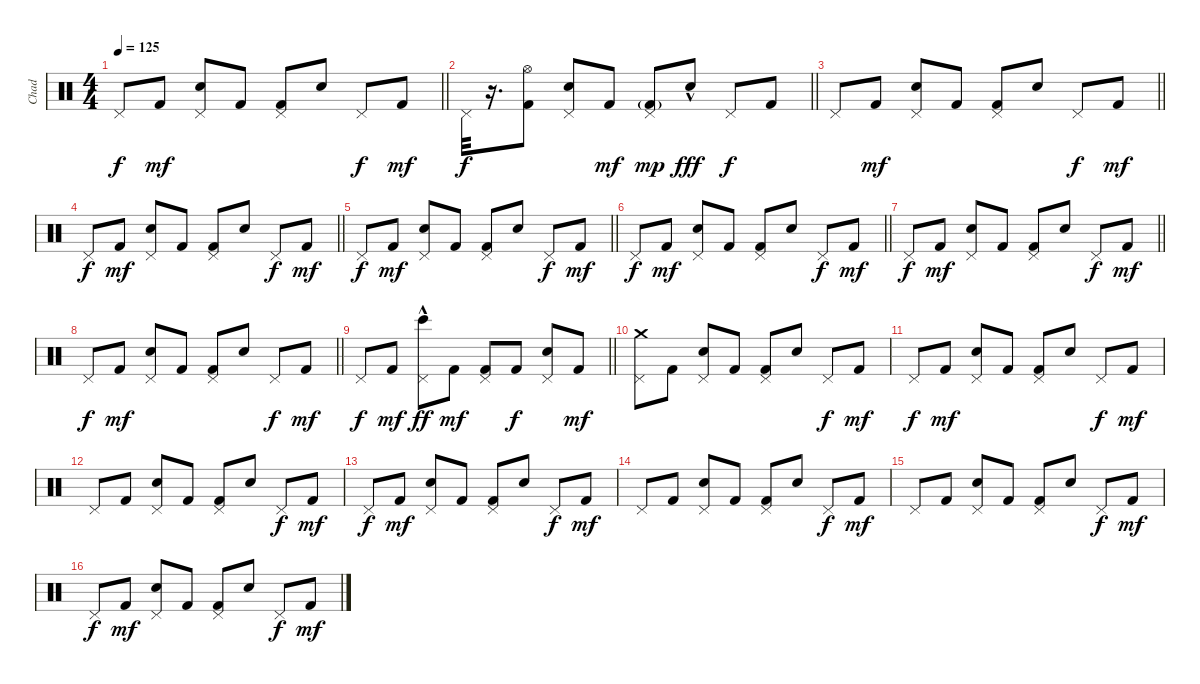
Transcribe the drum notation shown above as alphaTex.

\track ("Chad" "Chad") {instrument percussion}
\staff {score}
\articulation defaults
\ts (4 4)
\tempo 125
\clef neutral
\barLineRight lightlight
\ks c "Pedal Hi-Hat (hit)".8{dy f} "Kick (hit) 2".8{dy mf}
("Electric Snare (hit)" "Pedal Hi-Hat (hit)").8 "Kick (hit) 2".8 ("Kick (hit) 2" "Pedal Hi-Hat (hit)").8 "Electric Snare (hit)".8 "Pedal Hi-Hat (hit)".8{dy f} "Kick (hit) 2".8{dy mf} |
\barLineRight lightlight "Pedal Hi-Hat (hit)".32{dy f}
r.16{d} ("Kick (hit) 2" "Hi-Hat (open)").8 ("Electric Snare (hit)" "Pedal Hi-Hat (hit)").8 "Kick (hit) 2".8{dy mf} ("Kick (hit) 2"{g} "Pedal Hi-Hat (hit)").8{dy mp} "Electric Snare (hit)"{hac}.8{dy fff} "Pedal Hi-Hat (hit)".8{dy f} "Kick (hit) 2".8 |
\barLineRight lightlight "Pedal Hi-Hat (hit)".8 "Kick (hit) 2".8{dy mf}
("Electric Snare (hit)" "Pedal Hi-Hat (hit)").8 "Kick (hit) 2".8 ("Kick (hit) 2" "Pedal Hi-Hat (hit)").8 "Electric Snare (hit)".8 "Pedal Hi-Hat (hit)".8{dy f} "Kick (hit) 2".8{dy mf} |
\barLineRight lightlight "Pedal Hi-Hat (hit)".8{dy f} "Kick (hit) 2".8{dy mf}
("Electric Snare (hit)" "Pedal Hi-Hat (hit)").8 "Kick (hit) 2".8 ("Kick (hit) 2" "Pedal Hi-Hat (hit)").8 "Electric Snare (hit)".8 "Pedal Hi-Hat (hit)".8{dy f} "Kick (hit) 2".8{dy mf} |
\barLineRight lightlight "Pedal Hi-Hat (hit)".8{dy f} "Kick (hit) 2".8{dy mf}
("Electric Snare (hit)" "Pedal Hi-Hat (hit)").8 "Kick (hit) 2".8 ("Kick (hit) 2" "Pedal Hi-Hat (hit)").8 "Electric Snare (hit)".8 "Pedal Hi-Hat (hit)".8{dy f} "Kick (hit) 2".8{dy mf} |
\barLineRight lightlight "Pedal Hi-Hat (hit)".8{dy f} "Kick (hit) 2".8{dy mf}
("Electric Snare (hit)" "Pedal Hi-Hat (hit)").8 "Kick (hit) 2".8 ("Kick (hit) 2" "Pedal Hi-Hat (hit)").8 "Electric Snare (hit)".8 "Pedal Hi-Hat (hit)".8{dy f} "Kick (hit) 2".8{dy mf} |
\barLineRight lightlight "Pedal Hi-Hat (hit)".8{dy f} "Kick (hit) 2".8{dy mf}
("Electric Snare (hit)" "Pedal Hi-Hat (hit)").8 "Kick (hit) 2".8 ("Kick (hit) 2" "Pedal Hi-Hat (hit)").8 "Electric Snare (hit)".8 "Pedal Hi-Hat (hit)".8{dy f} "Kick (hit) 2".8{dy mf} |
\barLineRight lightlight "Pedal Hi-Hat (hit)".8{dy f} "Kick (hit) 2".8{dy mf}
("Electric Snare (hit)" "Pedal Hi-Hat (hit)").8 "Kick (hit) 2".8 ("Kick (hit) 2" "Pedal Hi-Hat (hit)").8 "Electric Snare (hit)".8 "Pedal Hi-Hat (hit)".8{dy f} "Kick (hit) 2".8{dy mf} |
\barLineRight lightlight "Pedal Hi-Hat (hit)".8{dy f} "Kick (hit) 2".8{dy mf}
("Bongo High (hit)"{hac} "Pedal Hi-Hat (hit)").8{dy ff} "Kick (hit) 2".8{dy mf} ("Kick (hit) 2" "Pedal Hi-Hat (hit)").8 "Kick (hit) 2".8{dy f} ("Electric Snare (hit)" "Pedal Hi-Hat (hit)").8 "Kick (hit) 2".8{dy mf} |
("Crash medium (hit)" "Pedal Hi-Hat (hit)").8 "Kick (hit) 2".8 ("Electric Snare (hit)" "Pedal Hi-Hat (hit)").8 "Kick (hit) 2".8 ("Kick (hit) 2" "Pedal Hi-Hat (hit)").8 "Electric Snare (hit)".8 "Pedal Hi-Hat (hit)".8{dy f} "Kick (hit) 2".8{dy mf} |
"Pedal Hi-Hat (hit)".8{dy f} "Kick (hit) 2".8{dy mf} ("Electric Snare (hit)" "Pedal Hi-Hat (hit)").8 "Kick (hit) 2".8 ("Kick (hit) 2" "Pedal Hi-Hat (hit)").8 "Electric Snare (hit)".8 "Pedal Hi-Hat (hit)".8{dy f} "Kick (hit) 2".8{dy mf} |
"Pedal Hi-Hat (hit)".8 "Kick (hit) 2".8 ("Electric Snare (hit)" "Pedal Hi-Hat (hit)").8 "Kick (hit) 2".8 ("Kick (hit) 2" "Pedal Hi-Hat (hit)").8 "Electric Snare (hit)".8 "Pedal Hi-Hat (hit)".8{dy f} "Kick (hit) 2".8{dy mf} |
"Pedal Hi-Hat (hit)".8{dy f} "Kick (hit) 2".8{dy mf} ("Electric Snare (hit)" "Pedal Hi-Hat (hit)").8 "Kick (hit) 2".8 ("Kick (hit) 2" "Pedal Hi-Hat (hit)").8 "Electric Snare (hit)".8 "Pedal Hi-Hat (hit)".8{dy f} "Kick (hit) 2".8{dy mf} |
"Pedal Hi-Hat (hit)".8 "Kick (hit) 2".8 ("Electric Snare (hit)" "Pedal Hi-Hat (hit)").8 "Kick (hit) 2".8 ("Kick (hit) 2" "Pedal Hi-Hat (hit)").8 "Electric Snare (hit)".8 "Pedal Hi-Hat (hit)".8{dy f} "Kick (hit) 2".8{dy mf} |
"Pedal Hi-Hat (hit)".8 "Kick (hit) 2".8 ("Electric Snare (hit)" "Pedal Hi-Hat (hit)").8 "Kick (hit) 2".8 ("Kick (hit) 2" "Pedal Hi-Hat (hit)").8 "Electric Snare (hit)".8 "Pedal Hi-Hat (hit)".8{dy f} "Kick (hit) 2".8{dy mf} |
"Pedal Hi-Hat (hit)".8{dy f} "Kick (hit) 2".8{dy mf} ("Electric Snare (hit)" "Pedal Hi-Hat (hit)").8 "Kick (hit) 2".8 ("Kick (hit) 2" "Pedal Hi-Hat (hit)").8 "Electric Snare (hit)".8 "Pedal Hi-Hat (hit)".8{dy f} "Kick (hit) 2".8{dy mf}
